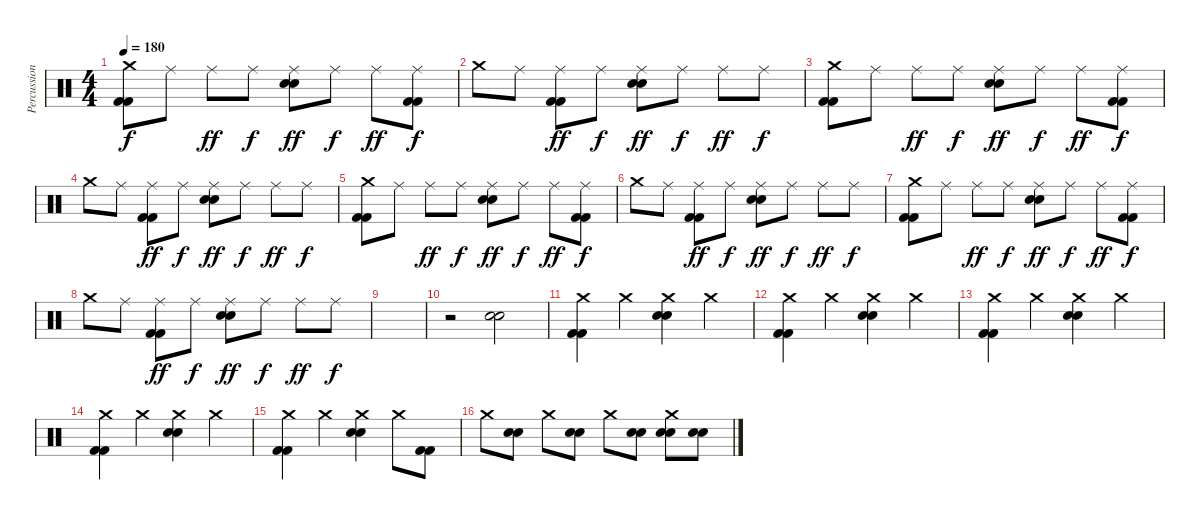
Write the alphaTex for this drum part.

\track ("Percussion" "Percussion") {instrument percussion}
\staff {score}
\articulation defaults
\ts (4 4)
\tempo 180
\clef neutral
\ks c
("Crash medium (hit)" "Kick (hit) 2" "Kick (hit) 2").8{dy f} "Ride (middle)".8 "Ride (middle)".8{dy ff} "Ride (middle)".8{dy f} ("Ride (middle)" "Electric Snare (hit)" "Snare (hit) 2").8{dy ff} "Ride (middle)".8{dy f} "Ride (middle)".8{dy ff} ("Ride (middle)" "Kick (hit) 2" "Kick (hit) 2").8{dy f} |
"Crash medium (hit)".8 "Ride (middle)".8 ("Ride (middle)" "Kick (hit) 2" "Kick (hit) 2").8{dy ff} "Ride (middle)".8{dy f} ("Ride (middle)" "Electric Snare (hit)" "Snare (hit) 2").8{dy ff} "Ride (middle)".8{dy f} "Ride (middle)".8{dy ff} "Ride (middle)".8{dy f} |
("Crash medium (hit)" "Kick (hit) 2" "Kick (hit) 2").8 "Ride (middle)".8 "Ride (middle)".8{dy ff} "Ride (middle)".8{dy f} ("Ride (middle)" "Electric Snare (hit)" "Snare (hit) 2").8{dy ff} "Ride (middle)".8{dy f} "Ride (middle)".8{dy ff} ("Ride (middle)" "Kick (hit) 2" "Kick (hit) 2").8{dy f} |
"Crash medium (hit)".8 "Ride (middle)".8 ("Ride (middle)" "Kick (hit) 2" "Kick (hit) 2").8{dy ff} "Ride (middle)".8{dy f} ("Ride (middle)" "Electric Snare (hit)" "Snare (hit) 2").8{dy ff} "Ride (middle)".8{dy f} "Ride (middle)".8{dy ff} "Ride (middle)".8{dy f} |
("Crash medium (hit)" "Kick (hit) 2" "Kick (hit) 2").8 "Ride (middle)".8 "Ride (middle)".8{dy ff} "Ride (middle)".8{dy f} ("Ride (middle)" "Electric Snare (hit)" "Snare (hit) 2").8{dy ff} "Ride (middle)".8{dy f} "Ride (middle)".8{dy ff} ("Ride (middle)" "Kick (hit) 2" "Kick (hit) 2").8{dy f} |
"Crash medium (hit)".8 "Ride (middle)".8 ("Ride (middle)" "Kick (hit) 2" "Kick (hit) 2").8{dy ff} "Ride (middle)".8{dy f} ("Ride (middle)" "Electric Snare (hit)" "Snare (hit) 2").8{dy ff} "Ride (middle)".8{dy f} "Ride (middle)".8{dy ff} "Ride (middle)".8{dy f} |
("Crash medium (hit)" "Kick (hit) 2" "Kick (hit) 2").8 "Ride (middle)".8 "Ride (middle)".8{dy ff} "Ride (middle)".8{dy f} ("Ride (middle)" "Electric Snare (hit)" "Snare (hit) 2").8{dy ff} "Ride (middle)".8{dy f} "Ride (middle)".8{dy ff} ("Ride (middle)" "Kick (hit) 2" "Kick (hit) 2").8{dy f} |
"Crash medium (hit)".8 "Ride (middle)".8 ("Ride (middle)" "Kick (hit) 2" "Kick (hit) 2").8{dy ff} "Ride (middle)".8{dy f} ("Ride (middle)" "Electric Snare (hit)" "Snare (hit) 2").8{dy ff} "Ride (middle)".8{dy f} "Ride (middle)".8{dy ff} "Ride (middle)".8{dy f} |
|
r.2 ("Electric Snare (hit)" "Snare (hit) 2").2 |
("Crash medium (hit)" "Kick (hit) 2" "Kick (hit) 2").4 "Crash medium (hit)".4 ("Crash medium (hit)" "Electric Snare (hit)" "Snare (hit) 2").4 "Crash medium (hit)".4 |
("Crash medium (hit)" "Kick (hit) 2" "Kick (hit) 2").4 "Crash medium (hit)".4 ("Crash medium (hit)" "Electric Snare (hit)" "Snare (hit) 2").4 "Crash medium (hit)".4 |
("Crash medium (hit)" "Kick (hit) 2" "Kick (hit) 2").4 "Crash medium (hit)".4 ("Crash medium (hit)" "Electric Snare (hit)" "Snare (hit) 2").4 "Crash medium (hit)".4 |
("Crash medium (hit)" "Kick (hit) 2" "Kick (hit) 2").4 "Crash medium (hit)".4 ("Crash medium (hit)" "Electric Snare (hit)" "Snare (hit) 2").4 "Crash medium (hit)".4 |
("Crash medium (hit)" "Kick (hit) 2" "Kick (hit) 2").4 "Crash medium (hit)".4 ("Crash medium (hit)" "Electric Snare (hit)" "Snare (hit) 2").4 "Crash medium (hit)".8 ("Kick (hit) 2" "Kick (hit) 2").8 |
"Crash medium (hit)".8 ("Electric Snare (hit)" "Snare (hit) 2").8 "Crash medium (hit)".8 ("Electric Snare (hit)" "Snare (hit) 2").8 "Crash medium (hit)".8 ("Electric Snare (hit)" "Snare (hit) 2").8 ("Crash medium (hit)" "Electric Snare (hit)" "Snare (hit) 2").8 ("Electric Snare (hit)" "Snare (hit) 2").8
